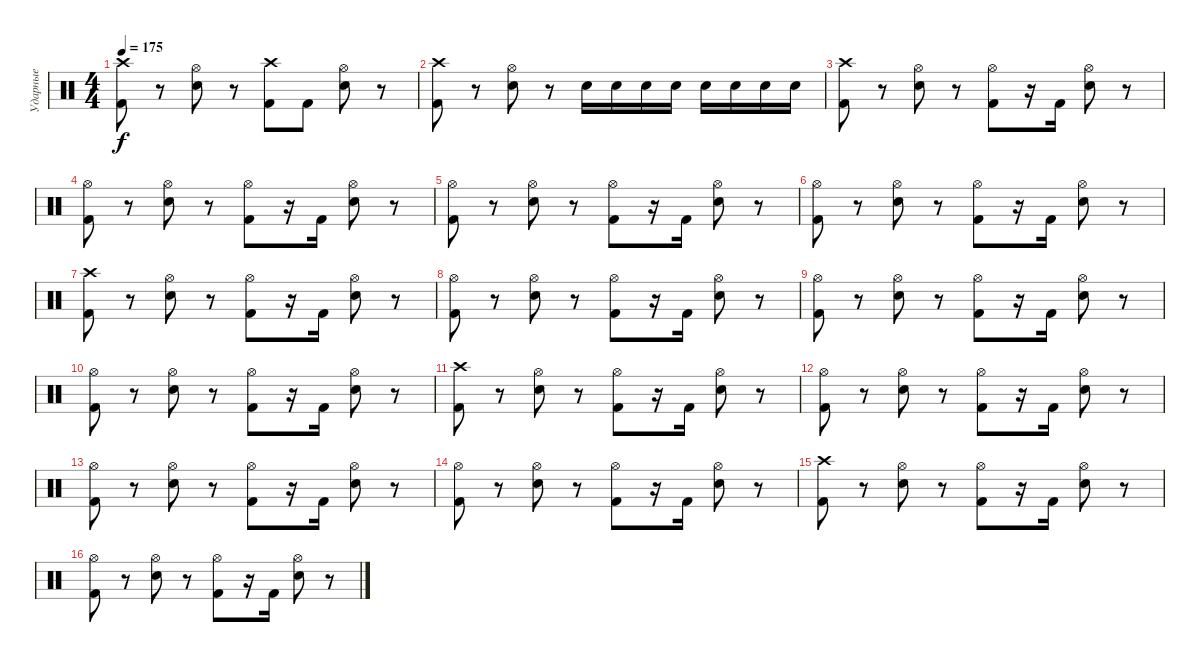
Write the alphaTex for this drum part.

\track ("Ударные" "Ударные") {instrument percussion}
\staff {score}
\articulation defaults
\ts (4 4)
\tempo 175
\clef neutral
\ks c
("Kick (hit) 2" "Crash high (hit)").8{dy f} r.8 ("Electric Snare (hit)" "Hi-Hat (open)").8 r.8 ("Kick (hit) 2" "Crash high (hit)").8 "Kick (hit) 2".8 ("Electric Snare (hit)" "Hi-Hat (open)").8 r.8 |
("Kick (hit) 2" "Crash high (hit)").8 r.8 ("Electric Snare (hit)" "Hi-Hat (open)").8 r.8 "Electric Snare (hit)".16 "Electric Snare (hit)".16 "Electric Snare (hit)".16 "Electric Snare (hit)".16 "Electric Snare (hit)".16 "Electric Snare (hit)".16 "Electric Snare (hit)".16 "Electric Snare (hit)".16 |
("Kick (hit) 2" "Crash high (hit)").8 r.8 ("Electric Snare (hit)" "Hi-Hat (open)").8 r.8 ("Kick (hit) 2" "Hi-Hat (open)").8 r.16 "Kick (hit) 2".16 ("Electric Snare (hit)" "Hi-Hat (open)").8 r.8 |
("Kick (hit) 2" "Hi-Hat (open)").8 r.8 ("Electric Snare (hit)" "Hi-Hat (open)").8 r.8 ("Kick (hit) 2" "Hi-Hat (open)").8 r.16 "Kick (hit) 2".16 ("Electric Snare (hit)" "Hi-Hat (open)").8 r.8 |
("Kick (hit) 2" "Hi-Hat (open)").8 r.8 ("Electric Snare (hit)" "Hi-Hat (open)").8 r.8 ("Kick (hit) 2" "Hi-Hat (open)").8 r.16 "Kick (hit) 2".16 ("Electric Snare (hit)" "Hi-Hat (open)").8 r.8 |
("Kick (hit) 2" "Hi-Hat (open)").8 r.8 ("Electric Snare (hit)" "Hi-Hat (open)").8 r.8 ("Kick (hit) 2" "Hi-Hat (open)").8 r.16 "Kick (hit) 2".16 ("Electric Snare (hit)" "Hi-Hat (open)").8 r.8 |
("Kick (hit) 2" "Crash high (hit)").8 r.8 ("Electric Snare (hit)" "Hi-Hat (open)").8 r.8 ("Kick (hit) 2" "Hi-Hat (open)").8 r.16 "Kick (hit) 2".16 ("Electric Snare (hit)" "Hi-Hat (open)").8 r.8 |
("Kick (hit) 2" "Hi-Hat (open)").8 r.8 ("Electric Snare (hit)" "Hi-Hat (open)").8 r.8 ("Kick (hit) 2" "Hi-Hat (open)").8 r.16 "Kick (hit) 2".16 ("Electric Snare (hit)" "Hi-Hat (open)").8 r.8 |
("Kick (hit) 2" "Hi-Hat (open)").8 r.8 ("Electric Snare (hit)" "Hi-Hat (open)").8 r.8 ("Kick (hit) 2" "Hi-Hat (open)").8 r.16 "Kick (hit) 2".16 ("Electric Snare (hit)" "Hi-Hat (open)").8 r.8 |
("Kick (hit) 2" "Hi-Hat (open)").8 r.8 ("Electric Snare (hit)" "Hi-Hat (open)").8 r.8 ("Kick (hit) 2" "Hi-Hat (open)").8 r.16 "Kick (hit) 2".16 ("Electric Snare (hit)" "Hi-Hat (open)").8 r.8 |
("Kick (hit) 2" "Crash high (hit)").8 r.8 ("Electric Snare (hit)" "Hi-Hat (open)").8 r.8 ("Kick (hit) 2" "Hi-Hat (open)").8 r.16 "Kick (hit) 2".16 ("Electric Snare (hit)" "Hi-Hat (open)").8 r.8 |
("Kick (hit) 2" "Hi-Hat (open)").8 r.8 ("Electric Snare (hit)" "Hi-Hat (open)").8 r.8 ("Kick (hit) 2" "Hi-Hat (open)").8 r.16 "Kick (hit) 2".16 ("Electric Snare (hit)" "Hi-Hat (open)").8 r.8 |
("Kick (hit) 2" "Hi-Hat (open)").8 r.8 ("Electric Snare (hit)" "Hi-Hat (open)").8 r.8 ("Kick (hit) 2" "Hi-Hat (open)").8 r.16 "Kick (hit) 2".16 ("Electric Snare (hit)" "Hi-Hat (open)").8 r.8 |
("Kick (hit) 2" "Hi-Hat (open)").8 r.8 ("Electric Snare (hit)" "Hi-Hat (open)").8 r.8 ("Kick (hit) 2" "Hi-Hat (open)").8 r.16 "Kick (hit) 2".16 ("Electric Snare (hit)" "Hi-Hat (open)").8 r.8 |
("Kick (hit) 2" "Crash high (hit)").8 r.8 ("Electric Snare (hit)" "Hi-Hat (open)").8 r.8 ("Kick (hit) 2" "Hi-Hat (open)").8 r.16 "Kick (hit) 2".16 ("Electric Snare (hit)" "Hi-Hat (open)").8 r.8 |
("Kick (hit) 2" "Hi-Hat (open)").8 r.8 ("Electric Snare (hit)" "Hi-Hat (open)").8 r.8 ("Kick (hit) 2" "Hi-Hat (open)").8 r.16 "Kick (hit) 2".16 ("Electric Snare (hit)" "Hi-Hat (open)").8 r.8
